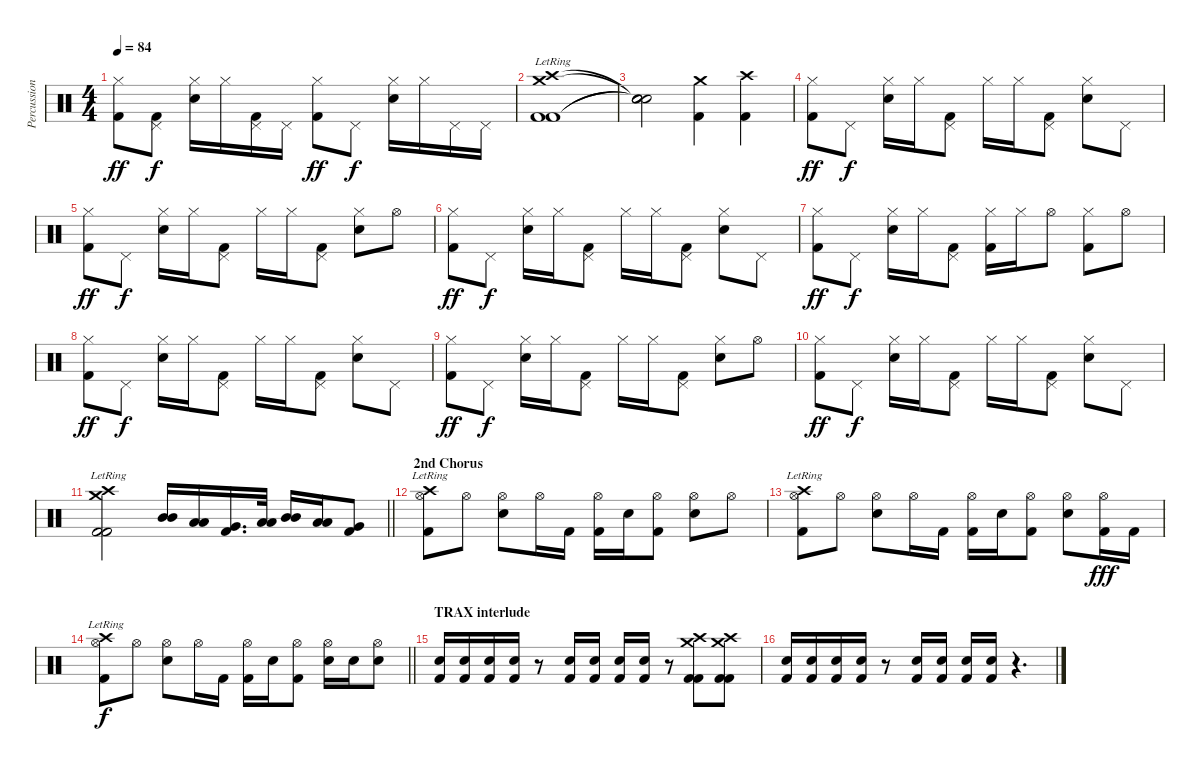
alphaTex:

\track ("Percussion" "Percussion") {instrument percussion}
\staff {score}
\articulation defaults
\ts (4 4)
\tempo 84
\clef neutral
\ks c
("Hi-Hat (closed)" "Kick (hit) 2").8{dy ff} ("Pedal Hi-Hat (hit)" "Kick (hit) 2").8{dy f} ("Hi-Hat (closed)" "Electric Snare (hit)").16 "Hi-Hat (closed)".16 ("Pedal Hi-Hat (hit)" "Kick (hit) 2").16 "Pedal Hi-Hat (hit)".16 ("Hi-Hat (closed)" "Kick (hit) 2").8{dy ff} "Pedal Hi-Hat (hit)".8{dy f} ("Hi-Hat (closed)" "Electric Snare (hit)").16 "Hi-Hat (closed)".16 "Pedal Hi-Hat (hit)".16 "Pedal Hi-Hat (hit)".16 |
("Crash medium (hit)"{lr} "Crash high (hit)"{lr} "Kick (hit) 2" "Kick (hit) 2").1 |
("Snare (hit)"{t} "Snare (hit)"{t} "Snare (hit)"{t} "Snare (hit)"{t}).2 ("Crash medium (hit)" "Kick (hit) 2").4 ("Crash high (hit)" "Kick (hit) 2").4 |
("Hi-Hat (closed)" "Kick (hit) 2").8{dy ff} "Pedal Hi-Hat (hit)".8{dy f} ("Hi-Hat (closed)" "Electric Snare (hit)").16 "Hi-Hat (closed)".16 ("Pedal Hi-Hat (hit)" "Kick (hit) 2").8 "Hi-Hat (closed)".16 "Hi-Hat (closed)".16 ("Pedal Hi-Hat (hit)" "Kick (hit) 2").8 ("Hi-Hat (closed)" "Electric Snare (hit)").8 "Pedal Hi-Hat (hit)".8 |
("Hi-Hat (closed)" "Kick (hit) 2").8{dy ff} "Pedal Hi-Hat (hit)".8{dy f} ("Hi-Hat (closed)" "Electric Snare (hit)").16 "Hi-Hat (closed)".16 ("Pedal Hi-Hat (hit)" "Kick (hit) 2").8 "Hi-Hat (closed)".16 "Hi-Hat (closed)".16 ("Pedal Hi-Hat (hit)" "Kick (hit) 2").8 ("Hi-Hat (closed)" "Electric Snare (hit)").8 "Hi-Hat (open)".8 |
("Hi-Hat (closed)" "Kick (hit) 2").8{dy ff} "Pedal Hi-Hat (hit)".8{dy f} ("Hi-Hat (closed)" "Electric Snare (hit)").16 "Hi-Hat (closed)".16 ("Pedal Hi-Hat (hit)" "Kick (hit) 2").8 "Hi-Hat (closed)".16 "Hi-Hat (closed)".16 ("Pedal Hi-Hat (hit)" "Kick (hit) 2").8 ("Hi-Hat (closed)" "Electric Snare (hit)").8 "Pedal Hi-Hat (hit)".8 |
("Hi-Hat (closed)" "Kick (hit) 2").8{dy ff} "Pedal Hi-Hat (hit)".8{dy f} ("Hi-Hat (closed)" "Electric Snare (hit)").16 "Hi-Hat (closed)".16 ("Pedal Hi-Hat (hit)" "Kick (hit) 2").8 ("Hi-Hat (closed)" "Kick (hit) 2").16 "Hi-Hat (closed)".16 "Hi-Hat (open)".8 ("Hi-Hat (closed)" "Kick (hit) 2").8 "Hi-Hat (open)".8 |
("Hi-Hat (closed)" "Kick (hit) 2").8{dy ff} "Pedal Hi-Hat (hit)".8{dy f} ("Hi-Hat (closed)" "Electric Snare (hit)").16 "Hi-Hat (closed)".16 ("Pedal Hi-Hat (hit)" "Kick (hit) 2").8 "Hi-Hat (closed)".16 "Hi-Hat (closed)".16 ("Pedal Hi-Hat (hit)" "Kick (hit) 2").8 ("Hi-Hat (closed)" "Electric Snare (hit)").8 "Pedal Hi-Hat (hit)".8 |
("Hi-Hat (closed)" "Kick (hit) 2").8{dy ff} "Pedal Hi-Hat (hit)".8{dy f} ("Hi-Hat (closed)" "Electric Snare (hit)").16 "Hi-Hat (closed)".16 ("Pedal Hi-Hat (hit)" "Kick (hit) 2").8 "Hi-Hat (closed)".16 "Hi-Hat (closed)".16 ("Pedal Hi-Hat (hit)" "Kick (hit) 2").8 ("Hi-Hat (closed)" "Electric Snare (hit)").8 "Hi-Hat (open)".8 |
("Hi-Hat (closed)" "Kick (hit) 2").8{dy ff} "Pedal Hi-Hat (hit)".8{dy f} ("Hi-Hat (closed)" "Electric Snare (hit)").16 "Hi-Hat (closed)".16 ("Pedal Hi-Hat (hit)" "Kick (hit) 2").8 "Hi-Hat (closed)".16 "Hi-Hat (closed)".16 ("Pedal Hi-Hat (hit)" "Kick (hit) 2").8 ("Hi-Hat (closed)" "Electric Snare (hit)").8 "Pedal Hi-Hat (hit)".8 |
\barLineRight lightlight
("Crash medium (hit)"{lr} "Crash high (hit)"{lr} "Kick (hit) 2" "Kick (hit) 2").2 ("Mid Tom (hit)" "Mid Tom (hit)").16 ("Low Tom (hit)" "Low Tom (hit)").16 ("Very Low Tom (hit)" "Kick (hit) 2").16{d} ("Low Tom (hit)" "Low Tom (hit)").32 ("Mid Tom (hit)" "Mid Tom (hit)").16 ("Low Tom (hit)" "Low Tom (hit)").16 ("Very Low Tom (hit)" "Kick (hit) 2").8 |
\section ("" "2nd Chorus")
("Crash high (hit)"{lr} "Hi-Hat (open)" "Kick (hit) 2").8 "Hi-Hat (open)".8 ("Hi-Hat (open)" "Electric Snare (hit)").8 "Hi-Hat (open)".16 "Kick (hit) 2".16 ("Hi-Hat (open)" "Kick (hit) 2").16 "Electric Snare (hit)".16 ("Hi-Hat (open)" "Kick (hit) 2").8 ("Hi-Hat (open)" "Electric Snare (hit)").8 "Hi-Hat (open)".8 |
("Crash high (hit)"{lr} "Hi-Hat (open)" "Kick (hit) 2").8 "Hi-Hat (open)".8 ("Hi-Hat (open)" "Electric Snare (hit)").8 "Hi-Hat (open)".16 "Kick (hit) 2".16 ("Hi-Hat (open)" "Kick (hit) 2").16 "Electric Snare (hit)".16 ("Hi-Hat (open)" "Kick (hit) 2").8 ("Hi-Hat (open)" "Electric Snare (hit)").8 ("Hi-Hat (open)" "Kick (hit) 2").16{dy fff} "Kick (hit) 2".16 |
\barLineRight lightlight
("Crash high (hit)"{lr} "Hi-Hat (open)" "Kick (hit) 2").8{dy f} "Hi-Hat (open)".8 ("Hi-Hat (open)" "Electric Snare (hit)").8 "Hi-Hat (open)".16 "Kick (hit) 2".16 ("Hi-Hat (open)" "Kick (hit) 2").16 "Electric Snare (hit)".16 ("Hi-Hat (open)" "Kick (hit) 2").8 ("Hi-Hat (open)" "Electric Snare (hit)").16 "Electric Snare (hit)".16 ("Hi-Hat (open)" "Electric Snare (hit)").8 |
\section ("" "TRAX interlude")
("Electric Snare (hit)" "Kick (hit) 2").16 ("Electric Snare (hit)" "Kick (hit) 2").16 ("Electric Snare (hit)" "Kick (hit) 2").16 ("Electric Snare (hit)" "Kick (hit) 2").16 r.8 ("Electric Snare (hit)" "Kick (hit) 2").16 ("Electric Snare (hit)" "Kick (hit) 2").16 ("Electric Snare (hit)" "Kick (hit) 2").16 ("Electric Snare (hit)" "Kick (hit) 2").16 r.8 ("Crash medium (hit)" "Crash high (hit)" "Kick (hit) 2" "Kick (hit) 2").8 ("Crash medium (hit)" "Crash high (hit)" "Kick (hit) 2" "Kick (hit) 2").8 |
("Electric Snare (hit)" "Kick (hit) 2").16 ("Electric Snare (hit)" "Kick (hit) 2").16 ("Electric Snare (hit)" "Kick (hit) 2").16 ("Electric Snare (hit)" "Kick (hit) 2").16 r.8 ("Electric Snare (hit)" "Kick (hit) 2").16 ("Electric Snare (hit)" "Kick (hit) 2").16 ("Electric Snare (hit)" "Kick (hit) 2").16 ("Electric Snare (hit)" "Kick (hit) 2").16 r.4{d}
